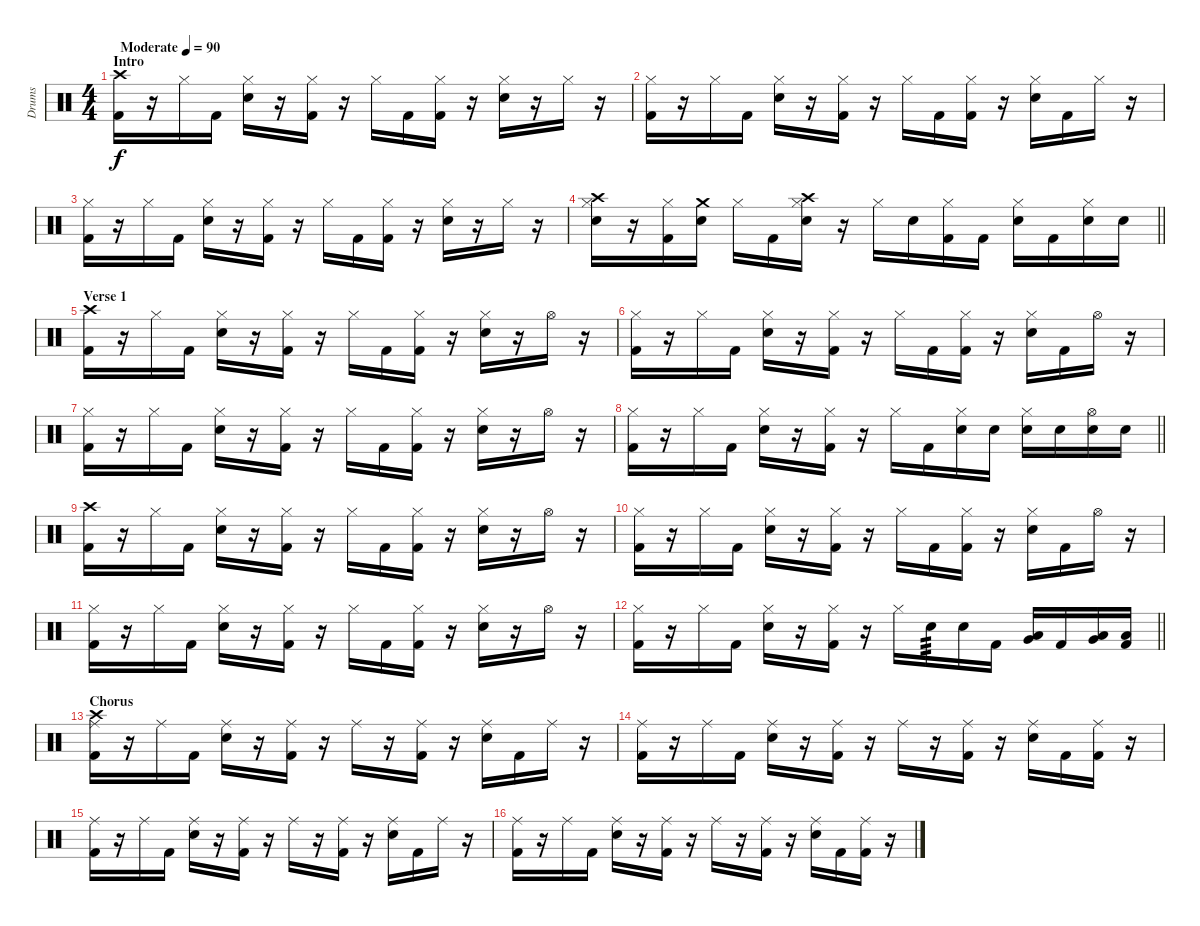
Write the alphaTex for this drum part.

\track ("Drums" "Drums") {instrument percussion}
\staff {score}
\articulation defaults
\ts (4 4)
\section ("" "Intro")
\tempo (90 "Moderate")
\clef neutral
\ks c
("Crash high (hit)" "Kick (hit) 2").16{dy f} r.16 "Hi-Hat (closed)".16 "Kick (hit) 2".16 ("Hi-Hat (closed)" "Electric Snare (hit)").16 r.16 ("Hi-Hat (closed)" "Kick (hit) 2").16 r.16 "Hi-Hat (closed)".16 "Kick (hit) 2".16 ("Hi-Hat (closed)" "Kick (hit) 2").16 r.16 ("Hi-Hat (closed)" "Electric Snare (hit)").16 r.16 "Hi-Hat (closed)".16 r.16 |
("Hi-Hat (closed)" "Kick (hit) 2").16 r.16 "Hi-Hat (closed)".16 "Kick (hit) 2".16 ("Hi-Hat (closed)" "Electric Snare (hit)").16 r.16 ("Hi-Hat (closed)" "Kick (hit) 2").16 r.16 "Hi-Hat (closed)".16 "Kick (hit) 2".16 ("Hi-Hat (closed)" "Kick (hit) 2").16 r.16 ("Hi-Hat (closed)" "Electric Snare (hit)").16 "Kick (hit) 2".16 "Hi-Hat (closed)".16 r.16 |
("Hi-Hat (closed)" "Kick (hit) 2").16 r.16 "Hi-Hat (closed)".16 "Kick (hit) 2".16 ("Hi-Hat (closed)" "Electric Snare (hit)").16 r.16 ("Hi-Hat (closed)" "Kick (hit) 2").16 r.16 "Hi-Hat (closed)".16 "Kick (hit) 2".16 ("Hi-Hat (closed)" "Kick (hit) 2").16 r.16 ("Hi-Hat (closed)" "Electric Snare (hit)").16 r.16 "Hi-Hat (closed)".16 r.16 |
\barLineRight lightlight
("Crash high (hit)" "Hi-Hat (closed)" "Electric Snare (hit)").16 r.16 ("Hi-Hat (closed)" "Kick (hit) 2").16 ("Crash medium (hit)" "Electric Snare (hit)").16 "Hi-Hat (closed)".16 "Kick (hit) 2".16 ("Crash high (hit)" "Hi-Hat (closed)" "Electric Snare (hit)").16 r.16 "Hi-Hat (closed)".16 "Electric Snare (hit)".16 ("Hi-Hat (closed)" "Kick (hit) 2").16 "Kick (hit) 2".16 ("Hi-Hat (closed)" "Electric Snare (hit)").16 "Kick (hit) 2".16 ("Hi-Hat (closed)" "Electric Snare (hit)").16 "Electric Snare (hit)".16 |
\section ("" "Verse 1")
("Crash high (hit)" "Kick (hit) 2").16 r.16 "Hi-Hat (closed)".16 "Kick (hit) 2".16 ("Hi-Hat (closed)" "Electric Snare (hit)").16 r.16 ("Hi-Hat (closed)" "Kick (hit) 2").16 r.16 "Hi-Hat (closed)".16 "Kick (hit) 2".16 ("Hi-Hat (closed)" "Kick (hit) 2").16 r.16 ("Hi-Hat (closed)" "Electric Snare (hit)").16 r.16 "Hi-Hat (open)".16 r.16 |
("Hi-Hat (closed)" "Kick (hit) 2").16 r.16 "Hi-Hat (closed)".16 "Kick (hit) 2".16 ("Hi-Hat (closed)" "Electric Snare (hit)").16 r.16 ("Hi-Hat (closed)" "Kick (hit) 2").16 r.16 "Hi-Hat (closed)".16 "Kick (hit) 2".16 ("Hi-Hat (closed)" "Kick (hit) 2").16 r.16 ("Hi-Hat (closed)" "Electric Snare (hit)").16 "Kick (hit) 2".16 "Hi-Hat (open)".16 r.16 |
("Hi-Hat (closed)" "Kick (hit) 2").16 r.16 "Hi-Hat (closed)".16 "Kick (hit) 2".16 ("Hi-Hat (closed)" "Electric Snare (hit)").16 r.16 ("Hi-Hat (closed)" "Kick (hit) 2").16 r.16 "Hi-Hat (closed)".16 "Kick (hit) 2".16 ("Hi-Hat (closed)" "Kick (hit) 2").16 r.16 ("Hi-Hat (closed)" "Electric Snare (hit)").16 r.16 "Hi-Hat (open)".16 r.16 |
\barLineRight lightlight
("Hi-Hat (closed)" "Kick (hit) 2").16 r.16 "Hi-Hat (closed)".16 "Kick (hit) 2".16 ("Hi-Hat (closed)" "Electric Snare (hit)").16 r.16 ("Hi-Hat (closed)" "Kick (hit) 2").16 r.16 "Hi-Hat (closed)".16 "Kick (hit) 2".16 ("Hi-Hat (closed)" "Electric Snare (hit)").16 "Electric Snare (hit)".16 ("Hi-Hat (closed)" "Electric Snare (hit)").16 "Electric Snare (hit)".16 ("Hi-Hat (open)" "Electric Snare (hit)").16 "Electric Snare (hit)".16 |
("Crash high (hit)" "Kick (hit) 2").16 r.16 "Hi-Hat (closed)".16 "Kick (hit) 2".16 ("Hi-Hat (closed)" "Electric Snare (hit)").16 r.16 ("Hi-Hat (closed)" "Kick (hit) 2").16 r.16 "Hi-Hat (closed)".16 "Kick (hit) 2".16 ("Hi-Hat (closed)" "Kick (hit) 2").16 r.16 ("Hi-Hat (closed)" "Electric Snare (hit)").16 r.16 "Hi-Hat (open)".16 r.16 |
("Hi-Hat (closed)" "Kick (hit) 2").16 r.16 "Hi-Hat (closed)".16 "Kick (hit) 2".16 ("Hi-Hat (closed)" "Electric Snare (hit)").16 r.16 ("Hi-Hat (closed)" "Kick (hit) 2").16 r.16 "Hi-Hat (closed)".16 "Kick (hit) 2".16 ("Hi-Hat (closed)" "Kick (hit) 2").16 r.16 ("Hi-Hat (closed)" "Electric Snare (hit)").16 "Kick (hit) 2".16 "Hi-Hat (open)".16 r.16 |
("Hi-Hat (closed)" "Kick (hit) 2").16 r.16 "Hi-Hat (closed)".16 "Kick (hit) 2".16 ("Hi-Hat (closed)" "Electric Snare (hit)").16 r.16 ("Hi-Hat (closed)" "Kick (hit) 2").16 r.16 "Hi-Hat (closed)".16 "Kick (hit) 2".16 ("Hi-Hat (closed)" "Kick (hit) 2").16 r.16 ("Hi-Hat (closed)" "Electric Snare (hit)").16 r.16 "Hi-Hat (open)".16 r.16 |
\barLineRight lightlight
("Hi-Hat (closed)" "Kick (hit) 2").16 r.16 "Hi-Hat (closed)".16 "Kick (hit) 2".16 ("Hi-Hat (closed)" "Electric Snare (hit)").16 r.16 ("Hi-Hat (closed)" "Kick (hit) 2").16 r.16 "Hi-Hat (closed)".16 "Electric Snare (hit)".16{tp 3} "Electric Snare (hit)".16 "Kick (hit) 2".16 ("Low Tom (hit)" "Very Low Tom (hit)").16 "Kick (hit) 2".16 ("Very Low Tom (hit)" "Low Floor Tom (hit)").16 ("Low Floor Tom (hit)" "Kick (hit) 2").16 |
\section ("" "Chorus")
("Crash high (hit)" "Ride (middle)" "Kick (hit) 2").16 r.16 "Ride (middle)".16 "Kick (hit) 2".16 ("Ride (middle)" "Electric Snare (hit)").16 r.16 ("Ride (middle)" "Kick (hit) 2").16 r.16 "Ride (middle)".16 r.16 ("Ride (middle)" "Kick (hit) 2").16 r.16 ("Ride (middle)" "Electric Snare (hit)").16 "Kick (hit) 2".16 "Ride (middle)".16 r.16 |
("Ride (middle)" "Kick (hit) 2").16 r.16 "Ride (middle)".16 "Kick (hit) 2".16 ("Ride (middle)" "Electric Snare (hit)").16 r.16 ("Ride (middle)" "Kick (hit) 2").16 r.16 "Ride (middle)".16 r.16 ("Ride (middle)" "Kick (hit) 2").16 r.16 ("Ride (middle)" "Electric Snare (hit)").16 "Kick (hit) 2".16 ("Ride (middle)" "Kick (hit) 2").16 r.16 |
("Ride (middle)" "Kick (hit) 2").16 r.16 "Ride (middle)".16 "Kick (hit) 2".16 ("Ride (middle)" "Electric Snare (hit)").16 r.16 ("Ride (middle)" "Kick (hit) 2").16 r.16 "Ride (middle)".16 r.16 ("Ride (middle)" "Kick (hit) 2").16 r.16 ("Ride (middle)" "Electric Snare (hit)").16 "Kick (hit) 2".16 "Ride (middle)".16 r.16 |
("Ride (middle)" "Kick (hit) 2").16 r.16 "Ride (middle)".16 "Kick (hit) 2".16 ("Ride (middle)" "Electric Snare (hit)").16 r.16 ("Ride (middle)" "Kick (hit) 2").16 r.16 "Ride (middle)".16 r.16 ("Ride (middle)" "Kick (hit) 2").16 r.16 ("Ride (middle)" "Electric Snare (hit)").16 "Kick (hit) 2".16 ("Ride (middle)" "Kick (hit) 2").16 r.16
